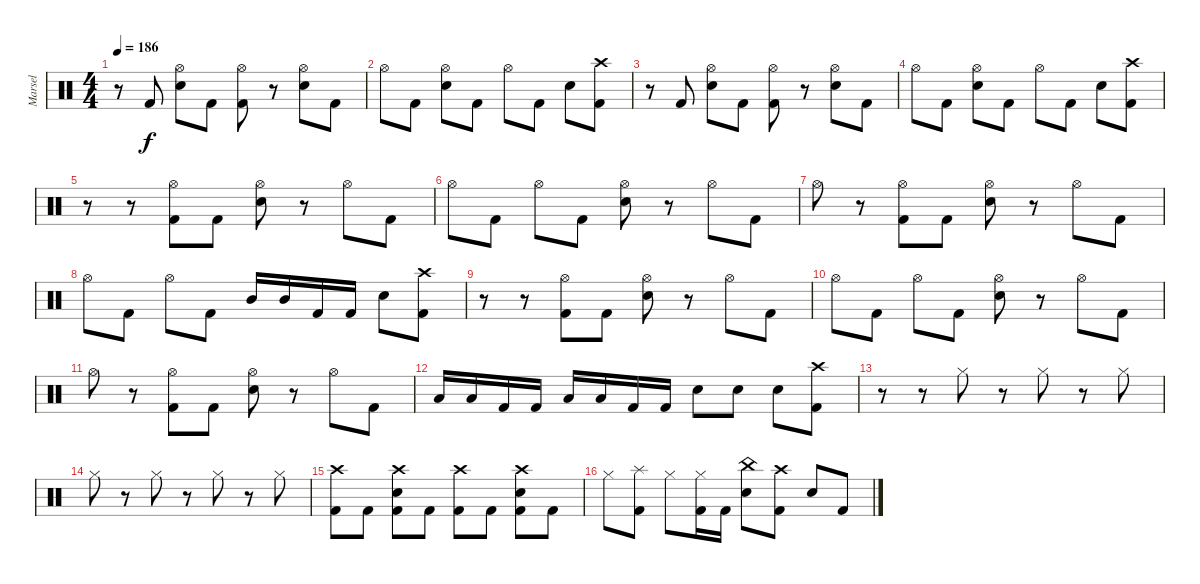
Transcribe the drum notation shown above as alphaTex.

\track ("Marsel" "Marsel") {mute instrument percussion}
\staff {score}
\articulation defaults
\ts (4 4)
\tempo 186
\clef neutral
\ks c
r.8{dy f} "Kick (hit) 2".8 ("Hi-Hat (open)" "Snare (hit) 2").8 "Kick (hit) 2".8 ("Hi-Hat (open)" "Kick (hit) 2").8 r.8 ("Hi-Hat (open)" "Snare (hit) 2").8 "Kick (hit) 2".8 |
"Hi-Hat (open)".8 "Kick (hit) 2".8 ("Hi-Hat (open)" "Snare (hit) 2").8 "Kick (hit) 2".8 "Hi-Hat (open)".8 "Kick (hit) 2".8 "Snare (hit) 2".8 ("Crash high (hit)" "Kick (hit) 2").8 |
r.8 "Kick (hit) 2".8 ("Hi-Hat (open)" "Snare (hit) 2").8 "Kick (hit) 2".8 ("Hi-Hat (open)" "Kick (hit) 2").8 r.8 ("Hi-Hat (open)" "Snare (hit) 2").8 "Kick (hit) 2".8 |
"Hi-Hat (open)".8 "Kick (hit) 2".8 ("Hi-Hat (open)" "Snare (hit) 2").8 "Kick (hit) 2".8 "Hi-Hat (open)".8 "Kick (hit) 2".8 "Snare (hit) 2".8 ("Crash high (hit)" "Kick (hit) 2").8 |
r.8 r.8 ("Hi-Hat (open)" "Kick (hit) 2").8 "Kick (hit) 2".8 ("Hi-Hat (open)" "Snare (hit) 2").8 r.8 "Hi-Hat (open)".8 "Kick (hit) 2".8 |
"Hi-Hat (open)".8 "Kick (hit) 2".8 "Hi-Hat (open)".8 "Kick (hit) 2".8 ("Hi-Hat (open)" "Snare (hit) 2").8 r.8 "Hi-Hat (open)".8 "Kick (hit) 2".8 |
"Hi-Hat (open)".8 r.8 ("Hi-Hat (open)" "Kick (hit) 2").8 "Kick (hit) 2".8 ("Hi-Hat (open)" "Snare (hit) 2").8 r.8 "Hi-Hat (open)".8 "Kick (hit) 2".8 |
"Hi-Hat (open)".8 "Kick (hit) 2".8 "Hi-Hat (open)".8 "Kick (hit) 2".8 "Mid Tom (hit)".16 "Mid Tom (hit)".16 "Kick (hit) 2".16 "Kick (hit) 2".16 "Snare (hit) 2".8 ("Crash high (hit)" "Kick (hit) 2").8 |
r.8 r.8 ("Hi-Hat (open)" "Kick (hit) 2").8 "Kick (hit) 2".8 ("Hi-Hat (open)" "Snare (hit) 2").8 r.8 "Hi-Hat (open)".8 "Kick (hit) 2".8 |
"Hi-Hat (open)".8 "Kick (hit) 2".8 "Hi-Hat (open)".8 "Kick (hit) 2".8 ("Hi-Hat (open)" "Snare (hit) 2").8 r.8 "Hi-Hat (open)".8 "Kick (hit) 2".8 |
"Hi-Hat (open)".8 r.8 ("Hi-Hat (open)" "Kick (hit) 2").8 "Kick (hit) 2".8 ("Hi-Hat (open)" "Snare (hit) 2").8 r.8 "Hi-Hat (open)".8 "Kick (hit) 2".8 |
"Low Tom (hit)".16 "Low Tom (hit)".16 "Kick (hit) 2".16 "Kick (hit) 2".16 "Low Floor Tom (hit)".16 "Low Floor Tom (hit)".16 "Kick (hit) 2".16 "Kick (hit) 2".16 "Snare (hit) 2".8 "Snare (hit) 2".8 "Snare (hit) 2".8 ("Crash high (hit)" "Kick (hit) 2").8 |
r.8 r.8 "Hi-Hat (closed)".8 r.8 "Hi-Hat (closed)".8 r.8 "Hi-Hat (closed)".8 |
"Hi-Hat (closed)".8 r.8 "Hi-Hat (closed)".8 r.8 "Hi-Hat (closed)".8 r.8 "Hi-Hat (closed)".8 |
("Crash high (hit)" "Kick (hit) 2").8 "Kick (hit) 2".8 ("Crash high (hit)" "Snare (hit) 2" "Kick (hit) 2").8 "Kick (hit) 2".8 ("Crash high (hit)" "Kick (hit) 2").8 "Kick (hit) 2".8 ("Crash high (hit)" "Snare (hit) 2" "Kick (hit) 2").8 "Kick (hit) 2".8 |
"Hi-Hat (closed)".8 ("Splash (hit)" "Kick (hit) 2").8 "Hi-Hat (closed)".8 ("Hi-Hat (closed)" "Kick (hit) 2").16 "Kick (hit) 2".16 ("China (hit)" "Snare (hit) 2").8 ("Crash high (hit)" "Kick (hit) 2").8 "Snare (hit) 2".8 "Kick (hit) 2".8
